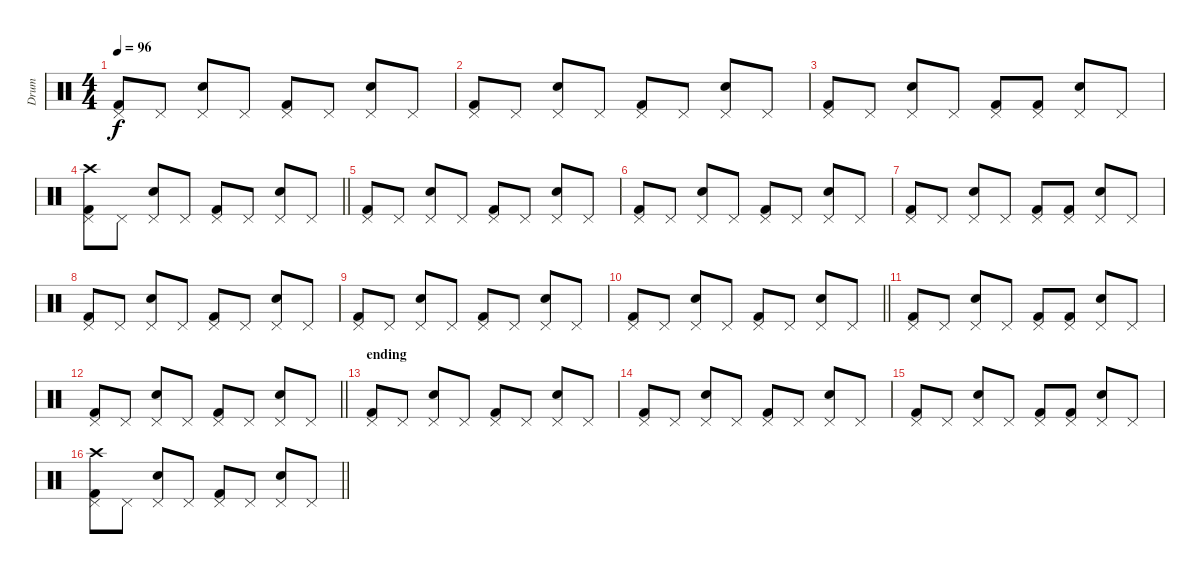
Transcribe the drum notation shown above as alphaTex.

\track ("Drum" "Drum") {instrument percussion}
\staff {score}
\articulation defaults
\ts (4 4)
\tempo 96
\clef neutral
\ks c
("Pedal Hi-Hat (hit)" "Kick (hit) 2").8{dy f} "Pedal Hi-Hat (hit)".8 ("Pedal Hi-Hat (hit)" "Snare (hit) 2").8 "Pedal Hi-Hat (hit)".8 ("Pedal Hi-Hat (hit)" "Kick (hit) 2").8 "Pedal Hi-Hat (hit)".8 ("Pedal Hi-Hat (hit)" "Snare (hit) 2").8 "Pedal Hi-Hat (hit)".8 |
("Pedal Hi-Hat (hit)" "Kick (hit) 2").8 "Pedal Hi-Hat (hit)".8 ("Pedal Hi-Hat (hit)" "Snare (hit) 2").8 "Pedal Hi-Hat (hit)".8 ("Pedal Hi-Hat (hit)" "Kick (hit) 2").8 "Pedal Hi-Hat (hit)".8 ("Pedal Hi-Hat (hit)" "Snare (hit) 2").8 "Pedal Hi-Hat (hit)".8 |
("Pedal Hi-Hat (hit)" "Kick (hit) 2").8 "Pedal Hi-Hat (hit)".8 ("Pedal Hi-Hat (hit)" "Snare (hit) 2").8 "Pedal Hi-Hat (hit)".8 ("Pedal Hi-Hat (hit)" "Kick (hit) 2").8 ("Pedal Hi-Hat (hit)" "Kick (hit) 2").8 ("Pedal Hi-Hat (hit)" "Snare (hit) 2").8 "Pedal Hi-Hat (hit)".8 |
\barLineRight lightlight
("Pedal Hi-Hat (hit)" "Crash high (hit)" "Kick (hit) 2").8 "Pedal Hi-Hat (hit)".8 ("Pedal Hi-Hat (hit)" "Snare (hit) 2").8 "Pedal Hi-Hat (hit)".8 ("Pedal Hi-Hat (hit)" "Kick (hit) 2").8 "Pedal Hi-Hat (hit)".8 ("Pedal Hi-Hat (hit)" "Snare (hit) 2").8 "Pedal Hi-Hat (hit)".8 |
("Pedal Hi-Hat (hit)" "Kick (hit) 2").8 "Pedal Hi-Hat (hit)".8 ("Pedal Hi-Hat (hit)" "Snare (hit) 2").8 "Pedal Hi-Hat (hit)".8 ("Pedal Hi-Hat (hit)" "Kick (hit) 2").8 "Pedal Hi-Hat (hit)".8 ("Pedal Hi-Hat (hit)" "Snare (hit) 2").8 "Pedal Hi-Hat (hit)".8 |
("Pedal Hi-Hat (hit)" "Kick (hit) 2").8 "Pedal Hi-Hat (hit)".8 ("Pedal Hi-Hat (hit)" "Snare (hit) 2").8 "Pedal Hi-Hat (hit)".8 ("Pedal Hi-Hat (hit)" "Kick (hit) 2").8 "Pedal Hi-Hat (hit)".8 ("Pedal Hi-Hat (hit)" "Snare (hit) 2").8 "Pedal Hi-Hat (hit)".8 |
("Pedal Hi-Hat (hit)" "Kick (hit) 2").8 "Pedal Hi-Hat (hit)".8 ("Pedal Hi-Hat (hit)" "Snare (hit) 2").8 "Pedal Hi-Hat (hit)".8 ("Pedal Hi-Hat (hit)" "Kick (hit) 2").8 ("Pedal Hi-Hat (hit)" "Kick (hit) 2").8 ("Pedal Hi-Hat (hit)" "Snare (hit) 2").8 "Pedal Hi-Hat (hit)".8 |
("Pedal Hi-Hat (hit)" "Kick (hit) 2").8 "Pedal Hi-Hat (hit)".8 ("Pedal Hi-Hat (hit)" "Snare (hit) 2").8 "Pedal Hi-Hat (hit)".8 ("Pedal Hi-Hat (hit)" "Kick (hit) 2").8 "Pedal Hi-Hat (hit)".8 ("Pedal Hi-Hat (hit)" "Snare (hit) 2").8 "Pedal Hi-Hat (hit)".8 |
("Pedal Hi-Hat (hit)" "Kick (hit) 2").8 "Pedal Hi-Hat (hit)".8 ("Pedal Hi-Hat (hit)" "Snare (hit) 2").8 "Pedal Hi-Hat (hit)".8 ("Pedal Hi-Hat (hit)" "Kick (hit) 2").8 "Pedal Hi-Hat (hit)".8 ("Pedal Hi-Hat (hit)" "Snare (hit) 2").8 "Pedal Hi-Hat (hit)".8 |
\barLineRight lightlight
("Pedal Hi-Hat (hit)" "Kick (hit) 2").8 "Pedal Hi-Hat (hit)".8 ("Pedal Hi-Hat (hit)" "Snare (hit) 2").8 "Pedal Hi-Hat (hit)".8 ("Pedal Hi-Hat (hit)" "Kick (hit) 2").8 "Pedal Hi-Hat (hit)".8 ("Pedal Hi-Hat (hit)" "Snare (hit) 2").8 "Pedal Hi-Hat (hit)".8 |
("Pedal Hi-Hat (hit)" "Kick (hit) 2").8 "Pedal Hi-Hat (hit)".8 ("Pedal Hi-Hat (hit)" "Snare (hit) 2").8 "Pedal Hi-Hat (hit)".8 ("Pedal Hi-Hat (hit)" "Kick (hit) 2").8 ("Pedal Hi-Hat (hit)" "Kick (hit) 2").8 ("Pedal Hi-Hat (hit)" "Snare (hit) 2").8 "Pedal Hi-Hat (hit)".8 |
\barLineRight lightlight
("Pedal Hi-Hat (hit)" "Kick (hit) 2").8 "Pedal Hi-Hat (hit)".8 ("Pedal Hi-Hat (hit)" "Snare (hit) 2").8 "Pedal Hi-Hat (hit)".8 ("Pedal Hi-Hat (hit)" "Kick (hit) 2").8 "Pedal Hi-Hat (hit)".8 ("Pedal Hi-Hat (hit)" "Snare (hit) 2").8 "Pedal Hi-Hat (hit)".8 |
\section ("" "ending")
("Pedal Hi-Hat (hit)" "Kick (hit) 2").8 "Pedal Hi-Hat (hit)".8 ("Pedal Hi-Hat (hit)" "Snare (hit) 2").8 "Pedal Hi-Hat (hit)".8 ("Pedal Hi-Hat (hit)" "Kick (hit) 2").8 "Pedal Hi-Hat (hit)".8 ("Pedal Hi-Hat (hit)" "Snare (hit) 2").8 "Pedal Hi-Hat (hit)".8 |
("Pedal Hi-Hat (hit)" "Kick (hit) 2").8 "Pedal Hi-Hat (hit)".8 ("Pedal Hi-Hat (hit)" "Snare (hit) 2").8 "Pedal Hi-Hat (hit)".8 ("Pedal Hi-Hat (hit)" "Kick (hit) 2").8 "Pedal Hi-Hat (hit)".8 ("Pedal Hi-Hat (hit)" "Snare (hit) 2").8 "Pedal Hi-Hat (hit)".8 |
("Pedal Hi-Hat (hit)" "Kick (hit) 2").8 "Pedal Hi-Hat (hit)".8 ("Pedal Hi-Hat (hit)" "Snare (hit) 2").8 "Pedal Hi-Hat (hit)".8 ("Pedal Hi-Hat (hit)" "Kick (hit) 2").8 ("Pedal Hi-Hat (hit)" "Kick (hit) 2").8 ("Pedal Hi-Hat (hit)" "Snare (hit) 2").8 "Pedal Hi-Hat (hit)".8 |
\barLineRight lightlight
("Pedal Hi-Hat (hit)" "Crash high (hit)" "Kick (hit) 2").8 "Pedal Hi-Hat (hit)".8 ("Pedal Hi-Hat (hit)" "Snare (hit) 2").8 "Pedal Hi-Hat (hit)".8 ("Pedal Hi-Hat (hit)" "Kick (hit) 2").8 "Pedal Hi-Hat (hit)".8 ("Pedal Hi-Hat (hit)" "Snare (hit) 2").8 "Pedal Hi-Hat (hit)".8
